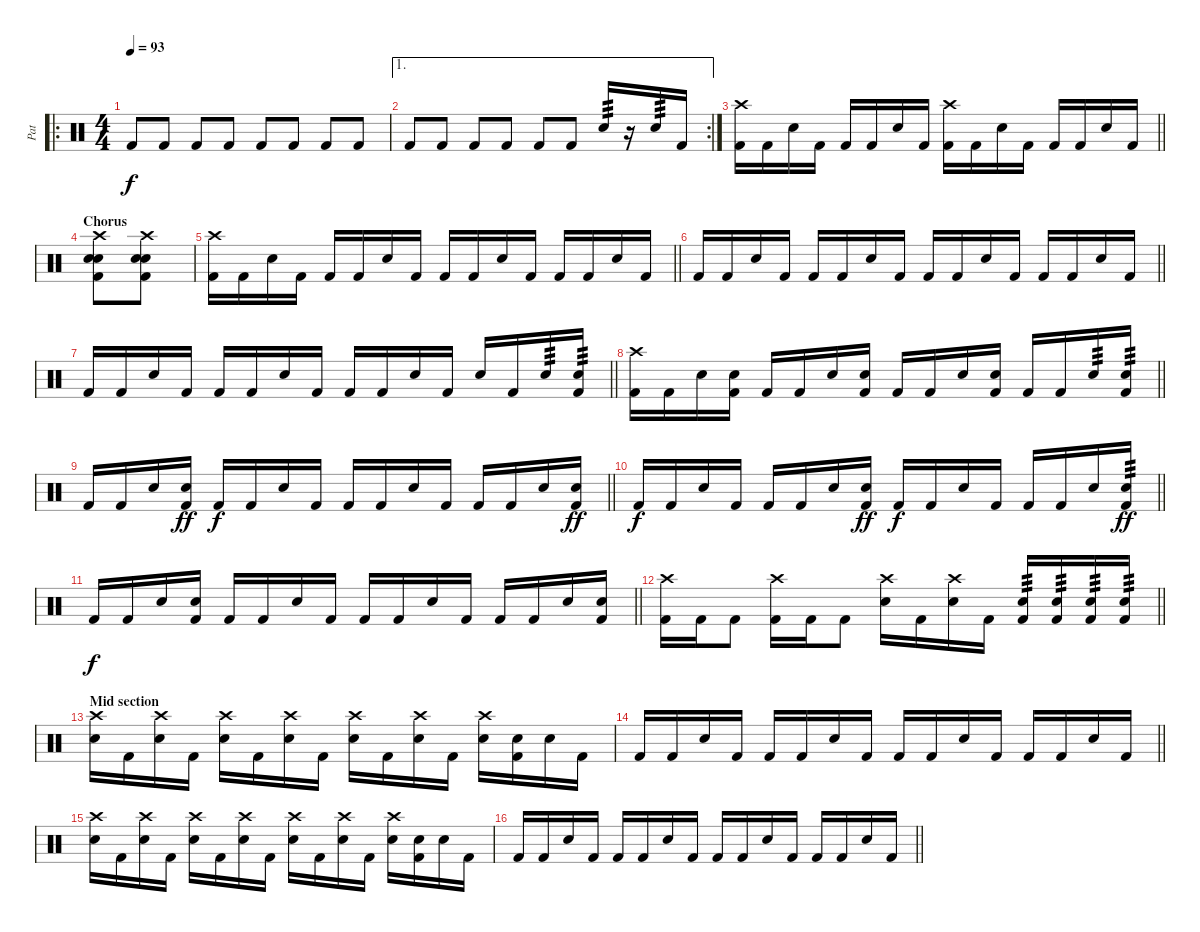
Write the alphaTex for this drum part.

\track ("Pat" "Pat") {instrument percussion}
\staff {score}
\articulation defaults
\ro
\ts (4 4)
\tempo 93
\clef neutral
\ks c "Kick (hit) 2".8{dy f} "Kick (hit) 2".8 "Kick (hit) 2".8 "Kick (hit) 2".8 "Kick (hit) 2".8 "Kick (hit) 2".8 "Kick (hit) 2".8 "Kick (hit) 2".8
|
\ae 1
\rc 2 "Kick (hit) 2".8 "Kick (hit) 2".8 "Kick (hit) 2".8 "Kick (hit) 2".8 "Kick (hit) 2".8 "Kick (hit) 2".8 "Electric Snare (hit)".16{tp 3}
r.16 "Electric Snare (hit)".16{tp 3} "Kick (hit) 2".16 |
\barLineRight lightlight
("Crash high (hit)" "Kick (hit) 2").16 "Kick (hit) 2".16 "Electric Snare (hit)".16 "Kick (hit) 2".16 "Kick (hit) 2".16 "Kick (hit) 2".16 "Electric Snare (hit)".16 "Kick (hit) 2".16 ("Crash high (hit)" "Kick (hit) 2").16 "Kick (hit) 2".16 "Electric Snare (hit)".16 "Kick (hit) 2".16 "Kick (hit) 2".16 "Kick (hit) 2".16 "Electric Snare (hit)".16 "Kick (hit) 2".16 |
\section ("" "Chorus")
("Electric Snare (hit)" "Crash high (hit)" "Kick (hit) 2" "Electric Snare (hit)").8 ("Electric Snare (hit)" "Crash high (hit)" "Kick (hit) 2" "Electric Snare (hit)").8 |
\barLineRight lightlight
("Crash high (hit)" "Kick (hit) 2").16 "Kick (hit) 2".16 "Electric Snare (hit)".16 "Kick (hit) 2".16 "Kick (hit) 2".16 "Kick (hit) 2".16 "Electric Snare (hit)".16 "Kick (hit) 2".16 "Kick (hit) 2".16 "Kick (hit) 2".16 "Electric Snare (hit)".16 "Kick (hit) 2".16 "Kick (hit) 2".16 "Kick (hit) 2".16 "Electric Snare (hit)".16 "Kick (hit) 2".16 |
\barLineRight lightlight "Kick (hit) 2".16 "Kick (hit) 2".16 "Electric Snare (hit)".16 "Kick (hit) 2".16 "Kick (hit) 2".16 "Kick (hit) 2".16 "Electric Snare (hit)".16 "Kick (hit) 2".16 "Kick (hit) 2".16 "Kick (hit) 2".16 "Electric Snare (hit)".16 "Kick (hit) 2".16 "Kick (hit) 2".16 "Kick (hit) 2".16 "Electric Snare (hit)".16 "Kick (hit) 2".16
|
\barLineRight lightlight "Kick (hit) 2".16 "Kick (hit) 2".16 "Electric Snare (hit)".16 "Kick (hit) 2".16 "Kick (hit) 2".16 "Kick (hit) 2".16 "Electric Snare (hit)".16 "Kick (hit) 2".16 "Kick (hit) 2".16 "Kick (hit) 2".16 "Electric Snare (hit)".16 "Kick (hit) 2".16 "Electric Snare (hit)".16 "Kick (hit) 2".16 "Electric Snare (hit)".16{tp 3}
("Electric Snare (hit)" "Kick (hit) 2").16{tp 3} |
\barLineRight lightlight
("Crash high (hit)" "Kick (hit) 2").16 "Kick (hit) 2".16 "Electric Snare (hit)".16 ("Electric Snare (hit)" "Kick (hit) 2").16 "Kick (hit) 2".16 "Kick (hit) 2".16 "Electric Snare (hit)".16 ("Electric Snare (hit)" "Kick (hit) 2").16 "Kick (hit) 2".16 "Kick (hit) 2".16 "Electric Snare (hit)".16 ("Electric Snare (hit)" "Kick (hit) 2").16 "Kick (hit) 2".16 "Kick (hit) 2".16 "Electric Snare (hit)".16{tp 3} ("Electric Snare (hit)" "Kick (hit) 2").16{tp 3} |
\barLineRight lightlight "Kick (hit) 2".16 "Kick (hit) 2".16 "Electric Snare (hit)".16
("Electric Snare (hit)" "Kick (hit) 2").16{dy ff} "Kick (hit) 2".16{dy f} "Kick (hit) 2".16 "Electric Snare (hit)".16 "Kick (hit) 2".16 "Kick (hit) 2".16 "Kick (hit) 2".16 "Electric Snare (hit)".16 "Kick (hit) 2".16 "Kick (hit) 2".16 "Kick (hit) 2".16 "Electric Snare (hit)".16 ("Electric Snare (hit)" "Kick (hit) 2").16{dy ff} |
\barLineRight lightlight "Kick (hit) 2".16{dy f} "Kick (hit) 2".16 "Electric Snare (hit)".16 "Kick (hit) 2".16 "Kick (hit) 2".16 "Kick (hit) 2".16 "Electric Snare (hit)".16
("Electric Snare (hit)" "Kick (hit) 2").16{dy ff} "Kick (hit) 2".16{dy f} "Kick (hit) 2".16 "Electric Snare (hit)".16 "Kick (hit) 2".16 "Kick (hit) 2".16 "Kick (hit) 2".16 "Electric Snare (hit)".16 ("Electric Snare (hit)" "Kick (hit) 2").16{tp 3 dy ff} |
\barLineRight lightlight "Kick (hit) 2".16{dy f} "Kick (hit) 2".16 "Electric Snare (hit)".16
("Electric Snare (hit)" "Kick (hit) 2").16 "Kick (hit) 2".16 "Kick (hit) 2".16 "Electric Snare (hit)".16 "Kick (hit) 2".16 "Kick (hit) 2".16 "Kick (hit) 2".16 "Electric Snare (hit)".16 "Kick (hit) 2".16 "Kick (hit) 2".16 "Kick (hit) 2".16 "Electric Snare (hit)".16 ("Electric Snare (hit)" "Kick (hit) 2").16 |
\barLineRight lightlight
("Crash high (hit)" "Kick (hit) 2").16 "Kick (hit) 2".16 "Kick (hit) 2".8 ("Crash high (hit)" "Kick (hit) 2").16 "Kick (hit) 2".16 "Kick (hit) 2".8 ("Crash high (hit)" "Electric Snare (hit)").16 "Kick (hit) 2".16 ("Crash high (hit)" "Electric Snare (hit)").16 "Kick (hit) 2".16 ("Electric Snare (hit)" "Kick (hit) 2").16{tp 3} ("Electric Snare (hit)" "Kick (hit) 2").16{tp 3} ("Electric Snare (hit)" "Kick (hit) 2").16{tp 3} ("Electric Snare (hit)" "Kick (hit) 2").16{tp 3} |
\section ("" "Mid section")
("Crash high (hit)" "Electric Snare (hit)").16 "Kick (hit) 2".16 ("Crash high (hit)" "Electric Snare (hit)").16 "Kick (hit) 2".16 ("Crash high (hit)" "Electric Snare (hit)").16 "Kick (hit) 2".16 ("Crash high (hit)" "Electric Snare (hit)").16 "Kick (hit) 2".16 ("Crash high (hit)" "Electric Snare (hit)").16 "Kick (hit) 2".16 ("Crash high (hit)" "Electric Snare (hit)").16 "Kick (hit) 2".16 ("Crash high (hit)" "Electric Snare (hit)").16 ("Electric Snare (hit)" "Kick (hit) 2").16 "Electric Snare (hit)".16 "Kick (hit) 2".16 |
\barLineRight lightlight "Kick (hit) 2".16 "Kick (hit) 2".16 "Electric Snare (hit)".16 "Kick (hit) 2".16 "Kick (hit) 2".16 "Kick (hit) 2".16 "Electric Snare (hit)".16 "Kick (hit) 2".16 "Kick (hit) 2".16 "Kick (hit) 2".16 "Electric Snare (hit)".16 "Kick (hit) 2".16 "Kick (hit) 2".16 "Kick (hit) 2".16 "Electric Snare (hit)".16 "Kick (hit) 2".16
|
("Crash high (hit)" "Electric Snare (hit)").16 "Kick (hit) 2".16 ("Crash high (hit)" "Electric Snare (hit)").16 "Kick (hit) 2".16 ("Crash high (hit)" "Electric Snare (hit)").16 "Kick (hit) 2".16 ("Crash high (hit)" "Electric Snare (hit)").16 "Kick (hit) 2".16 ("Crash high (hit)" "Electric Snare (hit)").16 "Kick (hit) 2".16 ("Crash high (hit)" "Electric Snare (hit)").16 "Kick (hit) 2".16 ("Crash high (hit)" "Electric Snare (hit)").16 ("Electric Snare (hit)" "Kick (hit) 2").16 "Electric Snare (hit)".16 "Kick (hit) 2".16 |
\barLineRight lightlight "Kick (hit) 2".16 "Kick (hit) 2".16 "Electric Snare (hit)".16 "Kick (hit) 2".16 "Kick (hit) 2".16 "Kick (hit) 2".16 "Electric Snare (hit)".16 "Kick (hit) 2".16 "Kick (hit) 2".16 "Kick (hit) 2".16 "Electric Snare (hit)".16 "Kick (hit) 2".16 "Kick (hit) 2".16 "Kick (hit) 2".16 "Electric Snare (hit)".16 "Kick (hit) 2".16
